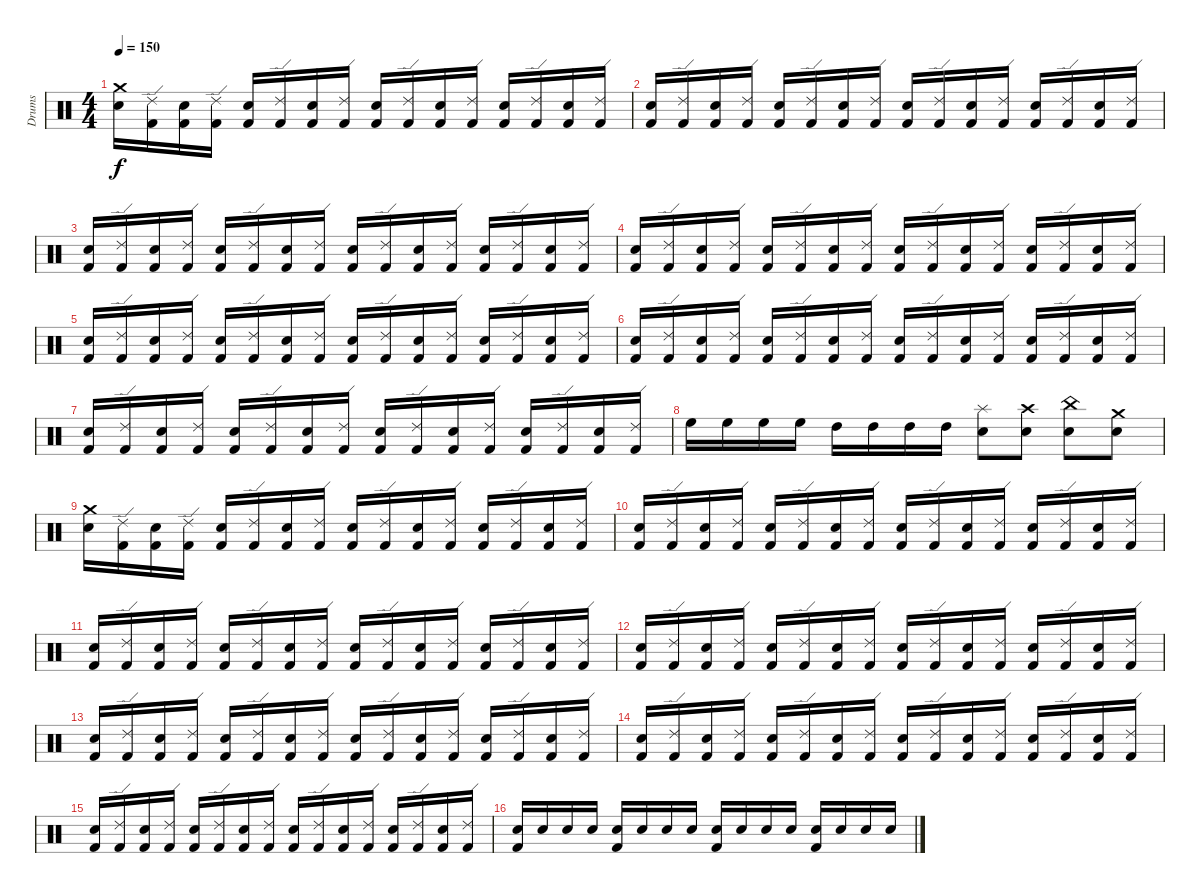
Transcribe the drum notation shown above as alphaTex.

\track ("Drums" "Drums") {instrument percussion}
\staff {score}
\articulation defaults
\ts (4 4)
\tempo 150
\clef neutral
\ks c
("Crash medium (hit)" "Snare (hit) 2").16{dy f} ("Ride (edge) 2" "Kick (hit) 2").16 ("Snare (hit) 2" "Kick (hit) 2").16 ("Ride (edge) 2" "Kick (hit) 2").16 ("Snare (hit) 2" "Kick (hit) 2").16 ("Ride (edge) 2" "Kick (hit) 2").16 ("Snare (hit) 2" "Kick (hit) 2").16 ("Ride (edge) 2" "Kick (hit) 2").16 ("Snare (hit) 2" "Kick (hit) 2").16 ("Ride (edge) 2" "Kick (hit) 2").16 ("Snare (hit) 2" "Kick (hit) 2").16 ("Ride (edge) 2" "Kick (hit) 2").16 ("Snare (hit) 2" "Kick (hit) 2").16 ("Ride (edge) 2" "Kick (hit) 2").16 ("Snare (hit) 2" "Kick (hit) 2").16 ("Ride (edge) 2" "Kick (hit) 2").16 |
("Snare (hit) 2" "Kick (hit) 2").16 ("Ride (edge) 2" "Kick (hit) 2").16 ("Snare (hit) 2" "Kick (hit) 2").16 ("Ride (edge) 2" "Kick (hit) 2").16 ("Snare (hit) 2" "Kick (hit) 2").16 ("Ride (edge) 2" "Kick (hit) 2").16 ("Snare (hit) 2" "Kick (hit) 2").16 ("Ride (edge) 2" "Kick (hit) 2").16 ("Snare (hit) 2" "Kick (hit) 2").16 ("Ride (edge) 2" "Kick (hit) 2").16 ("Snare (hit) 2" "Kick (hit) 2").16 ("Ride (edge) 2" "Kick (hit) 2").16 ("Snare (hit) 2" "Kick (hit) 2").16 ("Ride (edge) 2" "Kick (hit) 2").16 ("Snare (hit) 2" "Kick (hit) 2").16 ("Ride (edge) 2" "Kick (hit) 2").16 |
("Snare (hit) 2" "Kick (hit) 2").16 ("Ride (edge) 2" "Kick (hit) 2").16 ("Snare (hit) 2" "Kick (hit) 2").16 ("Ride (edge) 2" "Kick (hit) 2").16 ("Snare (hit) 2" "Kick (hit) 2").16 ("Ride (edge) 2" "Kick (hit) 2").16 ("Snare (hit) 2" "Kick (hit) 2").16 ("Ride (edge) 2" "Kick (hit) 2").16 ("Snare (hit) 2" "Kick (hit) 2").16 ("Ride (edge) 2" "Kick (hit) 2").16 ("Snare (hit) 2" "Kick (hit) 2").16 ("Ride (edge) 2" "Kick (hit) 2").16 ("Snare (hit) 2" "Kick (hit) 2").16 ("Ride (edge) 2" "Kick (hit) 2").16 ("Snare (hit) 2" "Kick (hit) 2").16 ("Ride (edge) 2" "Kick (hit) 2").16 |
("Snare (hit) 2" "Kick (hit) 2").16 ("Ride (edge) 2" "Kick (hit) 2").16 ("Snare (hit) 2" "Kick (hit) 2").16 ("Ride (edge) 2" "Kick (hit) 2").16 ("Snare (hit) 2" "Kick (hit) 2").16 ("Ride (edge) 2" "Kick (hit) 2").16 ("Snare (hit) 2" "Kick (hit) 2").16 ("Ride (edge) 2" "Kick (hit) 2").16 ("Snare (hit) 2" "Kick (hit) 2").16 ("Ride (edge) 2" "Kick (hit) 2").16 ("Snare (hit) 2" "Kick (hit) 2").16 ("Ride (edge) 2" "Kick (hit) 2").16 ("Snare (hit) 2" "Kick (hit) 2").16 ("Ride (edge) 2" "Kick (hit) 2").16 ("Snare (hit) 2" "Kick (hit) 2").16 ("Ride (edge) 2" "Kick (hit) 2").16 |
("Snare (hit) 2" "Kick (hit) 2").16 ("Ride (edge) 2" "Kick (hit) 2").16 ("Snare (hit) 2" "Kick (hit) 2").16 ("Ride (edge) 2" "Kick (hit) 2").16 ("Snare (hit) 2" "Kick (hit) 2").16 ("Ride (edge) 2" "Kick (hit) 2").16 ("Snare (hit) 2" "Kick (hit) 2").16 ("Ride (edge) 2" "Kick (hit) 2").16 ("Snare (hit) 2" "Kick (hit) 2").16 ("Ride (edge) 2" "Kick (hit) 2").16 ("Snare (hit) 2" "Kick (hit) 2").16 ("Ride (edge) 2" "Kick (hit) 2").16 ("Snare (hit) 2" "Kick (hit) 2").16 ("Ride (edge) 2" "Kick (hit) 2").16 ("Snare (hit) 2" "Kick (hit) 2").16 ("Ride (edge) 2" "Kick (hit) 2").16 |
("Snare (hit) 2" "Kick (hit) 2").16 ("Ride (edge) 2" "Kick (hit) 2").16 ("Snare (hit) 2" "Kick (hit) 2").16 ("Ride (edge) 2" "Kick (hit) 2").16 ("Snare (hit) 2" "Kick (hit) 2").16 ("Ride (edge) 2" "Kick (hit) 2").16 ("Snare (hit) 2" "Kick (hit) 2").16 ("Ride (edge) 2" "Kick (hit) 2").16 ("Snare (hit) 2" "Kick (hit) 2").16 ("Ride (edge) 2" "Kick (hit) 2").16 ("Snare (hit) 2" "Kick (hit) 2").16 ("Ride (edge) 2" "Kick (hit) 2").16 ("Snare (hit) 2" "Kick (hit) 2").16 ("Ride (edge) 2" "Kick (hit) 2").16 ("Snare (hit) 2" "Kick (hit) 2").16 ("Ride (edge) 2" "Kick (hit) 2").16 |
("Snare (hit) 2" "Kick (hit) 2").16 ("Ride (edge) 2" "Kick (hit) 2").16 ("Snare (hit) 2" "Kick (hit) 2").16 ("Ride (edge) 2" "Kick (hit) 2").16 ("Snare (hit) 2" "Kick (hit) 2").16 ("Ride (edge) 2" "Kick (hit) 2").16 ("Snare (hit) 2" "Kick (hit) 2").16 ("Ride (edge) 2" "Kick (hit) 2").16 ("Snare (hit) 2" "Kick (hit) 2").16 ("Ride (edge) 2" "Kick (hit) 2").16 ("Snare (hit) 2" "Kick (hit) 2").16 ("Ride (edge) 2" "Kick (hit) 2").16 ("Snare (hit) 2" "Kick (hit) 2").16 ("Ride (edge) 2" "Kick (hit) 2").16 ("Snare (hit) 2" "Kick (hit) 2").16 ("Ride (edge) 2" "Kick (hit) 2").16 |
"High Floor Tom (hit)".16 "High Floor Tom (hit)".16 "High Floor Tom (hit)".16 "High Floor Tom (hit)".16 "High Tom (hit)".16 "High Tom (hit)".16 "High Tom (hit)".16 "High Tom (hit)".16 ("Splash (hit)" "Snare (hit) 2").8 ("Crash high (hit)" "Snare (hit) 2").8 ("China (hit)" "Snare (hit) 2").8 ("Crash medium (hit)" "Snare (hit) 2").8 |
("Crash medium (hit)" "Snare (hit) 2").16 ("Ride (edge) 2" "Kick (hit) 2").16 ("Snare (hit) 2" "Kick (hit) 2").16 ("Ride (edge) 2" "Kick (hit) 2").16 ("Snare (hit) 2" "Kick (hit) 2").16 ("Ride (edge) 2" "Kick (hit) 2").16 ("Snare (hit) 2" "Kick (hit) 2").16 ("Ride (edge) 2" "Kick (hit) 2").16 ("Snare (hit) 2" "Kick (hit) 2").16 ("Ride (edge) 2" "Kick (hit) 2").16 ("Snare (hit) 2" "Kick (hit) 2").16 ("Ride (edge) 2" "Kick (hit) 2").16 ("Snare (hit) 2" "Kick (hit) 2").16 ("Ride (edge) 2" "Kick (hit) 2").16 ("Snare (hit) 2" "Kick (hit) 2").16 ("Ride (edge) 2" "Kick (hit) 2").16 |
("Snare (hit) 2" "Kick (hit) 2").16 ("Ride (edge) 2" "Kick (hit) 2").16 ("Snare (hit) 2" "Kick (hit) 2").16 ("Ride (edge) 2" "Kick (hit) 2").16 ("Snare (hit) 2" "Kick (hit) 2").16 ("Ride (edge) 2" "Kick (hit) 2").16 ("Snare (hit) 2" "Kick (hit) 2").16 ("Ride (edge) 2" "Kick (hit) 2").16 ("Snare (hit) 2" "Kick (hit) 2").16 ("Ride (edge) 2" "Kick (hit) 2").16 ("Snare (hit) 2" "Kick (hit) 2").16 ("Ride (edge) 2" "Kick (hit) 2").16 ("Snare (hit) 2" "Kick (hit) 2").16 ("Ride (edge) 2" "Kick (hit) 2").16 ("Snare (hit) 2" "Kick (hit) 2").16 ("Ride (edge) 2" "Kick (hit) 2").16 |
("Snare (hit) 2" "Kick (hit) 2").16 ("Ride (edge) 2" "Kick (hit) 2").16 ("Snare (hit) 2" "Kick (hit) 2").16 ("Ride (edge) 2" "Kick (hit) 2").16 ("Snare (hit) 2" "Kick (hit) 2").16 ("Ride (edge) 2" "Kick (hit) 2").16 ("Snare (hit) 2" "Kick (hit) 2").16 ("Ride (edge) 2" "Kick (hit) 2").16 ("Snare (hit) 2" "Kick (hit) 2").16 ("Ride (edge) 2" "Kick (hit) 2").16 ("Snare (hit) 2" "Kick (hit) 2").16 ("Ride (edge) 2" "Kick (hit) 2").16 ("Snare (hit) 2" "Kick (hit) 2").16 ("Ride (edge) 2" "Kick (hit) 2").16 ("Snare (hit) 2" "Kick (hit) 2").16 ("Ride (edge) 2" "Kick (hit) 2").16 |
("Snare (hit) 2" "Kick (hit) 2").16 ("Ride (edge) 2" "Kick (hit) 2").16 ("Snare (hit) 2" "Kick (hit) 2").16 ("Ride (edge) 2" "Kick (hit) 2").16 ("Snare (hit) 2" "Kick (hit) 2").16 ("Ride (edge) 2" "Kick (hit) 2").16 ("Snare (hit) 2" "Kick (hit) 2").16 ("Ride (edge) 2" "Kick (hit) 2").16 ("Snare (hit) 2" "Kick (hit) 2").16 ("Ride (edge) 2" "Kick (hit) 2").16 ("Snare (hit) 2" "Kick (hit) 2").16 ("Ride (edge) 2" "Kick (hit) 2").16 ("Snare (hit) 2" "Kick (hit) 2").16 ("Ride (edge) 2" "Kick (hit) 2").16 ("Snare (hit) 2" "Kick (hit) 2").16 ("Ride (edge) 2" "Kick (hit) 2").16 |
("Snare (hit) 2" "Kick (hit) 2").16 ("Ride (edge) 2" "Kick (hit) 2").16 ("Snare (hit) 2" "Kick (hit) 2").16 ("Ride (edge) 2" "Kick (hit) 2").16 ("Snare (hit) 2" "Kick (hit) 2").16 ("Ride (edge) 2" "Kick (hit) 2").16 ("Snare (hit) 2" "Kick (hit) 2").16 ("Ride (edge) 2" "Kick (hit) 2").16 ("Snare (hit) 2" "Kick (hit) 2").16 ("Ride (edge) 2" "Kick (hit) 2").16 ("Snare (hit) 2" "Kick (hit) 2").16 ("Ride (edge) 2" "Kick (hit) 2").16 ("Snare (hit) 2" "Kick (hit) 2").16 ("Ride (edge) 2" "Kick (hit) 2").16 ("Snare (hit) 2" "Kick (hit) 2").16 ("Ride (edge) 2" "Kick (hit) 2").16 |
("Snare (hit) 2" "Kick (hit) 2").16 ("Ride (edge) 2" "Kick (hit) 2").16 ("Snare (hit) 2" "Kick (hit) 2").16 ("Ride (edge) 2" "Kick (hit) 2").16 ("Snare (hit) 2" "Kick (hit) 2").16 ("Ride (edge) 2" "Kick (hit) 2").16 ("Snare (hit) 2" "Kick (hit) 2").16 ("Ride (edge) 2" "Kick (hit) 2").16 ("Snare (hit) 2" "Kick (hit) 2").16 ("Ride (edge) 2" "Kick (hit) 2").16 ("Snare (hit) 2" "Kick (hit) 2").16 ("Ride (edge) 2" "Kick (hit) 2").16 ("Snare (hit) 2" "Kick (hit) 2").16 ("Ride (edge) 2" "Kick (hit) 2").16 ("Snare (hit) 2" "Kick (hit) 2").16 ("Ride (edge) 2" "Kick (hit) 2").16 |
("Snare (hit) 2" "Kick (hit) 2").16 ("Ride (edge) 2" "Kick (hit) 2").16 ("Snare (hit) 2" "Kick (hit) 2").16 ("Ride (edge) 2" "Kick (hit) 2").16 ("Snare (hit) 2" "Kick (hit) 2").16 ("Ride (edge) 2" "Kick (hit) 2").16 ("Snare (hit) 2" "Kick (hit) 2").16 ("Ride (edge) 2" "Kick (hit) 2").16 ("Snare (hit) 2" "Kick (hit) 2").16 ("Ride (edge) 2" "Kick (hit) 2").16 ("Snare (hit) 2" "Kick (hit) 2").16 ("Ride (edge) 2" "Kick (hit) 2").16 ("Snare (hit) 2" "Kick (hit) 2").16 ("Ride (edge) 2" "Kick (hit) 2").16 ("Snare (hit) 2" "Kick (hit) 2").16 ("Ride (edge) 2" "Kick (hit) 2").16 |
("Snare (hit) 2" "Kick (hit) 2").16 "Snare (hit) 2".16 "Snare (hit) 2".16 "Snare (hit) 2".16 ("Snare (hit) 2" "Kick (hit) 2").16 "Snare (hit) 2".16 "Snare (hit) 2".16 "Snare (hit) 2".16 ("Snare (hit) 2" "Kick (hit) 2").16 "Snare (hit) 2".16 "Snare (hit) 2".16 "Snare (hit) 2".16 ("Snare (hit) 2" "Kick (hit) 2").16 "Snare (hit) 2".16 "Snare (hit) 2".16 "Snare (hit) 2".16
